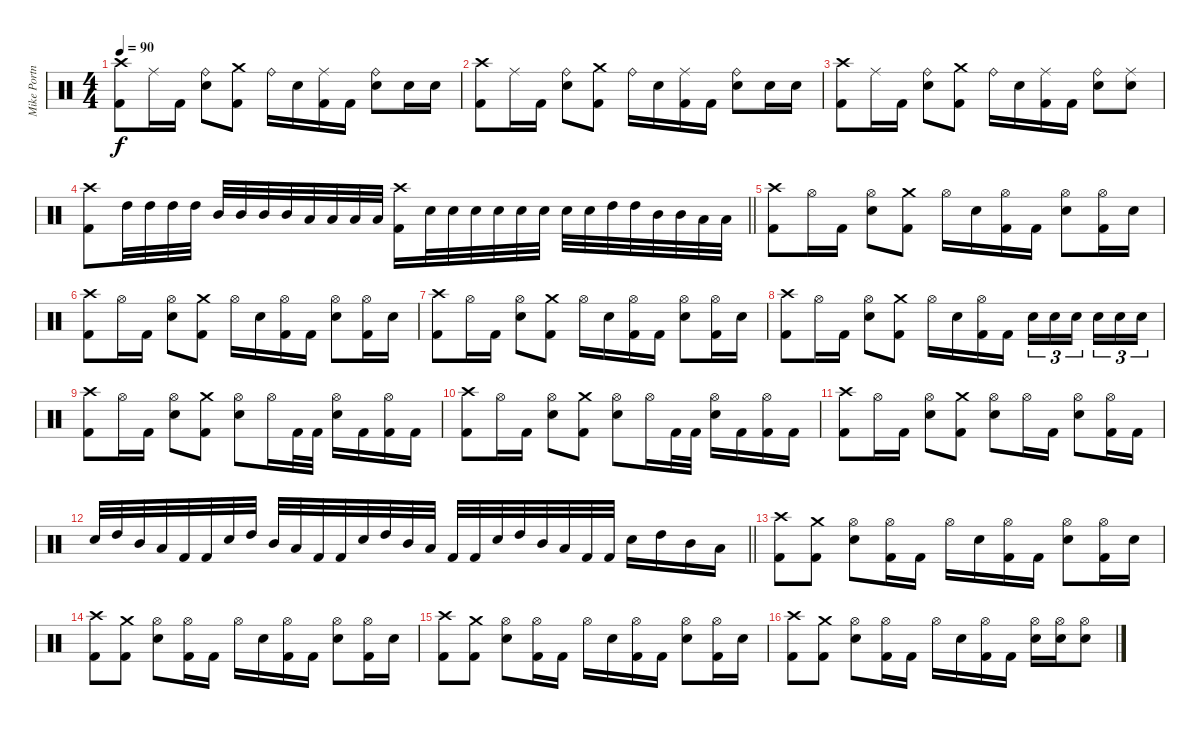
\track ("Mike Portnoy" "Mike Portn") {instrument percussion}
\staff {score}
\articulation defaults
\ts (4 4)
\tempo 90
\clef neutral
\ks c
("Crash high (hit)" "Kick (hit) 2").8{dy f} "Ride (middle)".16 "Kick (hit) 2".16 ("Ride (bell)" "Snare (hit) 2").8 ("Crash medium (hit)" "Kick (hit) 2").8 "Ride (bell)".16 "Snare (hit) 2".16 ("Ride (middle)" "Kick (hit) 2").16 "Kick (hit) 2".16 ("Ride (bell)" "Snare (hit) 2").8 "Snare (hit) 2".16 "Snare (hit) 2".16 |
("Crash high (hit)" "Kick (hit) 2").8 "Ride (middle)".16 "Kick (hit) 2".16 ("Ride (bell)" "Snare (hit) 2").8 ("Crash medium (hit)" "Kick (hit) 2").8 "Ride (bell)".16 "Snare (hit) 2".16 ("Ride (middle)" "Kick (hit) 2").16 "Kick (hit) 2".16 ("Ride (bell)" "Snare (hit) 2").8 "Snare (hit) 2".16 "Snare (hit) 2".16 |
("Crash high (hit)" "Kick (hit) 2").8 "Ride (middle)".16 "Kick (hit) 2".16 ("Ride (bell)" "Snare (hit) 2").8 ("Crash medium (hit)" "Kick (hit) 2").8 "Ride (bell)".16 "Snare (hit) 2".16 ("Ride (middle)" "Kick (hit) 2").16 "Kick (hit) 2".16 ("Ride (bell)" "Snare (hit) 2").8 ("Ride (middle)" "Snare (hit) 2").8 |
\barLineRight lightlight
("Crash high (hit)" "Kick (hit) 2").8 "High Tom (hit)".32 "High Tom (hit)".32 "High Tom (hit)".32 "High Tom (hit)".32 "Mid Tom (hit)".32 "Mid Tom (hit)".32 "Mid Tom (hit)".32 "Mid Tom (hit)".32 "Low Tom (hit)".32 "Low Tom (hit)".32 "Low Tom (hit)".32 "Low Tom (hit)".32 ("Crash high (hit)" "Kick (hit) 2").16 "Snare (hit) 2".32 "Snare (hit) 2".32 "Snare (hit) 2".32 "Snare (hit) 2".32 "Snare (hit) 2".32 "Snare (hit) 2".32 "Snare (hit) 2".32 "Snare (hit) 2".32 "High Tom (hit)".32 "High Tom (hit)".32 "Mid Tom (hit)".32 "Mid Tom (hit)".32 "Low Tom (hit)".32 "Low Tom (hit)".32 |
("Crash high (hit)" "Kick (hit) 2").8 "Hi-Hat (open)".16 "Kick (hit) 2".16 ("Hi-Hat (open)" "Snare (hit) 2").8 ("Crash medium (hit)" "Kick (hit) 2").8 "Hi-Hat (open)".16 "Snare (hit) 2".16 ("Hi-Hat (open)" "Kick (hit) 2").16 "Kick (hit) 2".16 ("Hi-Hat (open)" "Snare (hit) 2").8 ("Hi-Hat (open)" "Kick (hit) 2").16 "Snare (hit) 2".16 |
("Crash high (hit)" "Kick (hit) 2").8 "Hi-Hat (open)".16 "Kick (hit) 2".16 ("Hi-Hat (open)" "Snare (hit) 2").8 ("Crash medium (hit)" "Kick (hit) 2").8 "Hi-Hat (open)".16 "Snare (hit) 2".16 ("Hi-Hat (open)" "Kick (hit) 2").16 "Kick (hit) 2".16 ("Hi-Hat (open)" "Snare (hit) 2").8 ("Hi-Hat (open)" "Kick (hit) 2").16 "Snare (hit) 2".16 |
("Crash high (hit)" "Kick (hit) 2").8 "Hi-Hat (open)".16 "Kick (hit) 2".16 ("Hi-Hat (open)" "Snare (hit) 2").8 ("Crash medium (hit)" "Kick (hit) 2").8 "Hi-Hat (open)".16 "Snare (hit) 2".16 ("Hi-Hat (open)" "Kick (hit) 2").16 "Kick (hit) 2".16 ("Hi-Hat (open)" "Snare (hit) 2").8 ("Hi-Hat (open)" "Kick (hit) 2").16 "Snare (hit) 2".16 |
("Crash high (hit)" "Kick (hit) 2").8 "Hi-Hat (open)".16 "Kick (hit) 2".16 ("Hi-Hat (open)" "Snare (hit) 2").8 ("Crash medium (hit)" "Kick (hit) 2").8 "Hi-Hat (open)".16 "Snare (hit) 2".16 ("Hi-Hat (open)" "Kick (hit) 2").16 "Kick (hit) 2".16 "Snare (hit) 2".16{tu (3 2)} "Snare (hit) 2".16{tu (3 2)} "Snare (hit) 2".16{tu (3 2) beam splitsecondary} "Snare (hit) 2".16{tu (3 2)} "Snare (hit) 2".16{tu (3 2)} "Snare (hit) 2".16{tu (3 2)} |
("Crash high (hit)" "Kick (hit) 2").8 "Hi-Hat (open)".16 "Kick (hit) 2".16 ("Hi-Hat (open)" "Snare (hit) 2").8 ("Crash medium (hit)" "Kick (hit) 2").8 ("Hi-Hat (open)" "Snare (hit) 2").8 "Hi-Hat (open)".16 "Kick (hit) 2".32 "Kick (hit) 2".32 ("Hi-Hat (open)" "Snare (hit) 2").16 "Kick (hit) 2".16 ("Hi-Hat (open)" "Kick (hit) 2").16 "Kick (hit) 2".16 |
("Crash high (hit)" "Kick (hit) 2").8 "Hi-Hat (open)".16 "Kick (hit) 2".16 ("Hi-Hat (open)" "Snare (hit) 2").8 ("Crash medium (hit)" "Kick (hit) 2").8 ("Hi-Hat (open)" "Snare (hit) 2").8 "Hi-Hat (open)".16 "Kick (hit) 2".32 "Kick (hit) 2".32 ("Hi-Hat (open)" "Snare (hit) 2").16 "Kick (hit) 2".16 ("Hi-Hat (open)" "Kick (hit) 2").16 "Kick (hit) 2".16 |
("Crash high (hit)" "Kick (hit) 2").8 "Hi-Hat (open)".16 "Kick (hit) 2".16 ("Hi-Hat (open)" "Snare (hit) 2").8 ("Crash medium (hit)" "Kick (hit) 2").8 ("Hi-Hat (open)" "Snare (hit) 2").8 "Hi-Hat (open)".16 "Kick (hit) 2".16 ("Hi-Hat (open)" "Snare (hit) 2").8 ("Hi-Hat (open)" "Kick (hit) 2").16 "Kick (hit) 2".16 |
\barLineRight lightlight "Snare (hit) 2".32 "High Tom (hit)".32 "Mid Tom (hit)".32 "Low Tom (hit)".32 "Kick (hit) 2".32 "Kick (hit) 2".32 "Snare (hit) 2".32 "High Tom (hit)".32 "Mid Tom (hit)".32 "Low Tom (hit)".32 "Kick (hit) 2".32 "Kick (hit) 2".32 "Snare (hit) 2".32 "High Tom (hit)".32 "Mid Tom (hit)".32 "Low Tom (hit)".32 "Kick (hit) 2".32 "Kick (hit) 2".32 "Snare (hit) 2".32 "High Tom (hit)".32 "Mid Tom (hit)".32 "Low Tom (hit)".32 "Kick (hit) 2".32 "Kick (hit) 2".32 "Snare (hit) 2".16 "High Tom (hit)".16 "Mid Tom (hit)".16 "Low Tom (hit)".16
|
("Crash high (hit)" "Kick (hit) 2").8 ("Crash medium (hit)" "Kick (hit) 2").8 ("Hi-Hat (open)" "Snare (hit) 2").8 ("Hi-Hat (open)" "Kick (hit) 2").16 "Kick (hit) 2".16 "Hi-Hat (open)".16 "Snare (hit) 2".16 ("Hi-Hat (open)" "Kick (hit) 2").16 "Kick (hit) 2".16 ("Hi-Hat (open)" "Snare (hit) 2").8 ("Hi-Hat (open)" "Kick (hit) 2").16 "Snare (hit) 2".16 |
("Crash high (hit)" "Kick (hit) 2").8 ("Crash medium (hit)" "Kick (hit) 2").8 ("Hi-Hat (open)" "Snare (hit) 2").8 ("Hi-Hat (open)" "Kick (hit) 2").16 "Kick (hit) 2".16 "Hi-Hat (open)".16 "Snare (hit) 2".16 ("Hi-Hat (open)" "Kick (hit) 2").16 "Kick (hit) 2".16 ("Hi-Hat (open)" "Snare (hit) 2").8 ("Hi-Hat (open)" "Kick (hit) 2").16 "Snare (hit) 2".16 |
("Crash high (hit)" "Kick (hit) 2").8 ("Crash medium (hit)" "Kick (hit) 2").8 ("Hi-Hat (open)" "Snare (hit) 2").8 ("Hi-Hat (open)" "Kick (hit) 2").16 "Kick (hit) 2".16 "Hi-Hat (open)".16 "Snare (hit) 2".16 ("Hi-Hat (open)" "Kick (hit) 2").16 "Kick (hit) 2".16 ("Hi-Hat (open)" "Snare (hit) 2").8 ("Hi-Hat (open)" "Kick (hit) 2").16 "Snare (hit) 2".16 |
("Crash high (hit)" "Kick (hit) 2").8 ("Crash medium (hit)" "Kick (hit) 2").8 ("Hi-Hat (open)" "Snare (hit) 2").8 ("Hi-Hat (open)" "Kick (hit) 2").16 "Kick (hit) 2".16 "Hi-Hat (open)".16 "Snare (hit) 2".16 ("Hi-Hat (open)" "Kick (hit) 2").16 "Kick (hit) 2".16 ("Hi-Hat (open)" "Snare (hit) 2").16 ("Hi-Hat (open)" "Snare (hit) 2").16 ("Hi-Hat (open)" "Snare (hit) 2").8
